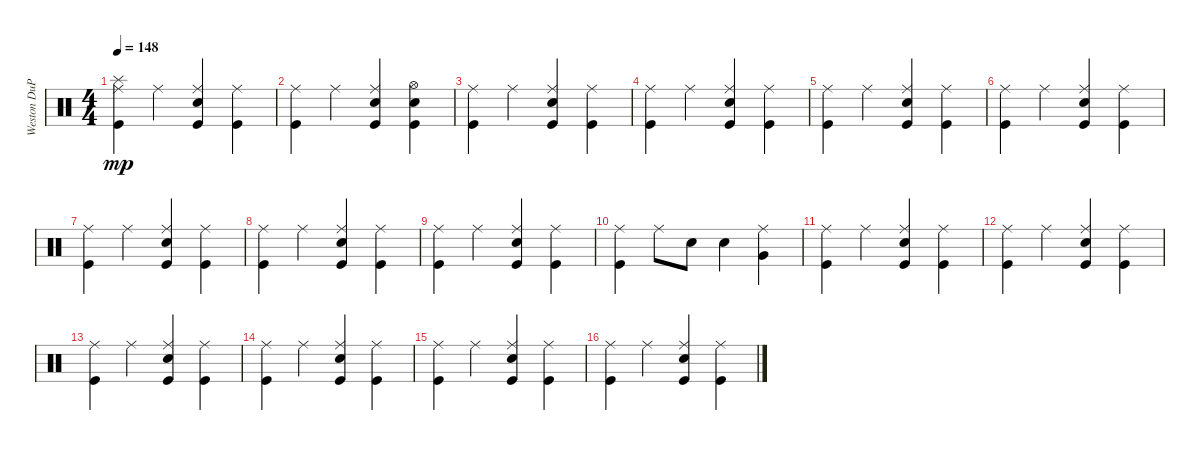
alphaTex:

\track ("Weston DuPree" "Weston DuP") {instrument percussion}
\staff {score}
\articulation defaults
\ts (4 4)
\tempo 148
\clef neutral
\ks c
("Splash (hit)" "Kick (hit)" "Ride (middle)").4{dy mp} "Ride (middle)".4 ("Electric Snare (hit)" "Kick (hit)" "Ride (middle)").4 ("Ride (middle)" "Kick (hit)").4 |
("Ride (middle)" "Kick (hit)").4 "Ride (middle)".4 ("Ride (middle)" "Kick (hit)" "Electric Snare (hit)").4 ("Hi-Hat (open)" "Kick (hit)" "Electric Snare (hit)").4 |
("Kick (hit)" "Ride (middle)").4 "Ride (middle)".4 ("Electric Snare (hit)" "Kick (hit)" "Ride (middle)").4 ("Ride (middle)" "Kick (hit)").4 |
("Ride (middle)" "Kick (hit)").4 "Ride (middle)".4 ("Ride (middle)" "Kick (hit)" "Electric Snare (hit)").4 ("Ride (middle)" "Kick (hit)").4 |
("Kick (hit)" "Ride (middle)").4 "Ride (middle)".4 ("Electric Snare (hit)" "Kick (hit)" "Ride (middle)").4 ("Ride (middle)" "Kick (hit)").4 |
("Ride (middle)" "Kick (hit)").4 "Ride (middle)".4 ("Ride (middle)" "Kick (hit)" "Electric Snare (hit)").4 ("Ride (middle)" "Kick (hit)").4 |
("Kick (hit)" "Ride (middle)").4 "Ride (middle)".4 ("Electric Snare (hit)" "Kick (hit)" "Ride (middle)").4 ("Ride (middle)" "Kick (hit)").4 |
("Ride (middle)" "Kick (hit)").4 "Ride (middle)".4 ("Ride (middle)" "Kick (hit)" "Electric Snare (hit)").4 ("Ride (middle)" "Kick (hit)").4 |
("Kick (hit)" "Ride (middle)").4 "Ride (middle)".4 ("Electric Snare (hit)" "Kick (hit)" "Ride (middle)").4 ("Ride (middle)" "Kick (hit)").4 |
("Ride (middle)" "Kick (hit)").4 "Ride (middle)".8 "Electric Snare (hit)".8 "Electric Snare (hit)".4 ("Ride (middle)" "Very Low Tom (hit)").4 |
("Kick (hit)" "Ride (middle)").4 "Ride (middle)".4 ("Electric Snare (hit)" "Kick (hit)" "Ride (middle)").4 ("Ride (middle)" "Kick (hit)").4 |
("Ride (middle)" "Kick (hit)").4 "Ride (middle)".4 ("Ride (middle)" "Kick (hit)" "Electric Snare (hit)").4 ("Ride (middle)" "Kick (hit)").4 |
("Kick (hit)" "Ride (middle)").4 "Ride (middle)".4 ("Electric Snare (hit)" "Kick (hit)" "Ride (middle)").4 ("Ride (middle)" "Kick (hit)").4 |
("Ride (middle)" "Kick (hit)").4 "Ride (middle)".4 ("Ride (middle)" "Kick (hit)" "Electric Snare (hit)").4 ("Ride (middle)" "Kick (hit)").4 |
("Kick (hit)" "Ride (middle)").4 "Ride (middle)".4 ("Electric Snare (hit)" "Kick (hit)" "Ride (middle)").4 ("Ride (middle)" "Kick (hit)").4 |
("Ride (middle)" "Kick (hit)").4 "Ride (middle)".4 ("Ride (middle)" "Kick (hit)" "Electric Snare (hit)").4 ("Ride (middle)" "Kick (hit)").4
